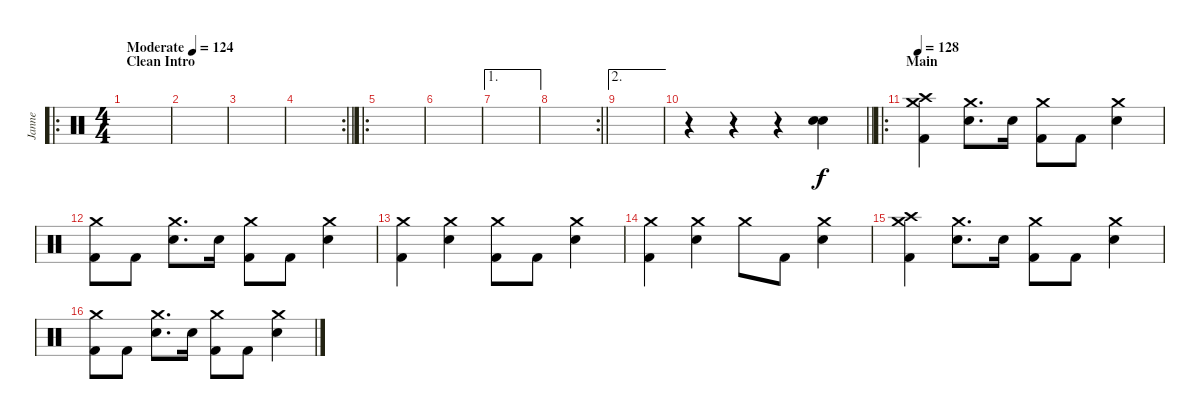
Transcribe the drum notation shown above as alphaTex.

\track ("Janne" "Janne") {instrument percussion}
\staff {score}
\articulation defaults
\ro
\ts (4 4)
\section ("" "Clean Intro")
\tempo (124 "Moderate")
\clef neutral
\ks c
|
|
|
\rc 2
\barLineRight lightlight
|
\ro
\section ("" "")
|
|
\ae 1
|
\rc 2
\barLineRight lightlight
|
\ae 2
\section ("" "")
|
\barLineRight lightlight
r.4 r.4 r.4 ("Snare (hit) 2" "Electric Snare (hit)").4 |
\ro
\section ("" "Main")
\tempo 128
("Kick (hit) 2" "Crash medium (hit)" "Crash high (hit)").4 ("Snare (hit) 2" "Crash medium (hit)").8{d} "Snare (hit) 2".16 ("Kick (hit) 2" "Crash medium (hit)").8 "Kick (hit) 2".8 ("Snare (hit) 2" "Crash medium (hit)").4 |
("Kick (hit) 2" "Crash medium (hit)").8 "Kick (hit) 2".8 ("Snare (hit) 2" "Crash medium (hit)").8{d} "Snare (hit) 2".16 ("Kick (hit) 2" "Crash medium (hit)").8 "Kick (hit) 2".8 ("Snare (hit) 2" "Crash medium (hit)").4 |
("Kick (hit) 2" "Crash medium (hit)").4 ("Snare (hit) 2" "Crash medium (hit)").4 ("Kick (hit) 2" "Crash medium (hit)").8 "Kick (hit) 2".8 ("Snare (hit) 2" "Crash medium (hit)").4 |
("Kick (hit) 2" "Crash medium (hit)").4 ("Snare (hit) 2" "Crash medium (hit)").4 "Crash medium (hit)".8 "Kick (hit) 2".8 ("Snare (hit) 2" "Crash medium (hit)").4 |
("Kick (hit) 2" "Crash medium (hit)" "Crash high (hit)").4 ("Snare (hit) 2" "Crash medium (hit)").8{d} "Snare (hit) 2".16 ("Kick (hit) 2" "Crash medium (hit)").8 "Kick (hit) 2".8 ("Snare (hit) 2" "Crash medium (hit)").4 |
("Kick (hit) 2" "Crash medium (hit)").8 "Kick (hit) 2".8 ("Snare (hit) 2" "Crash medium (hit)").8{d} "Snare (hit) 2".16 ("Kick (hit) 2" "Crash medium (hit)").8 "Kick (hit) 2".8 ("Snare (hit) 2" "Crash medium (hit)").4
